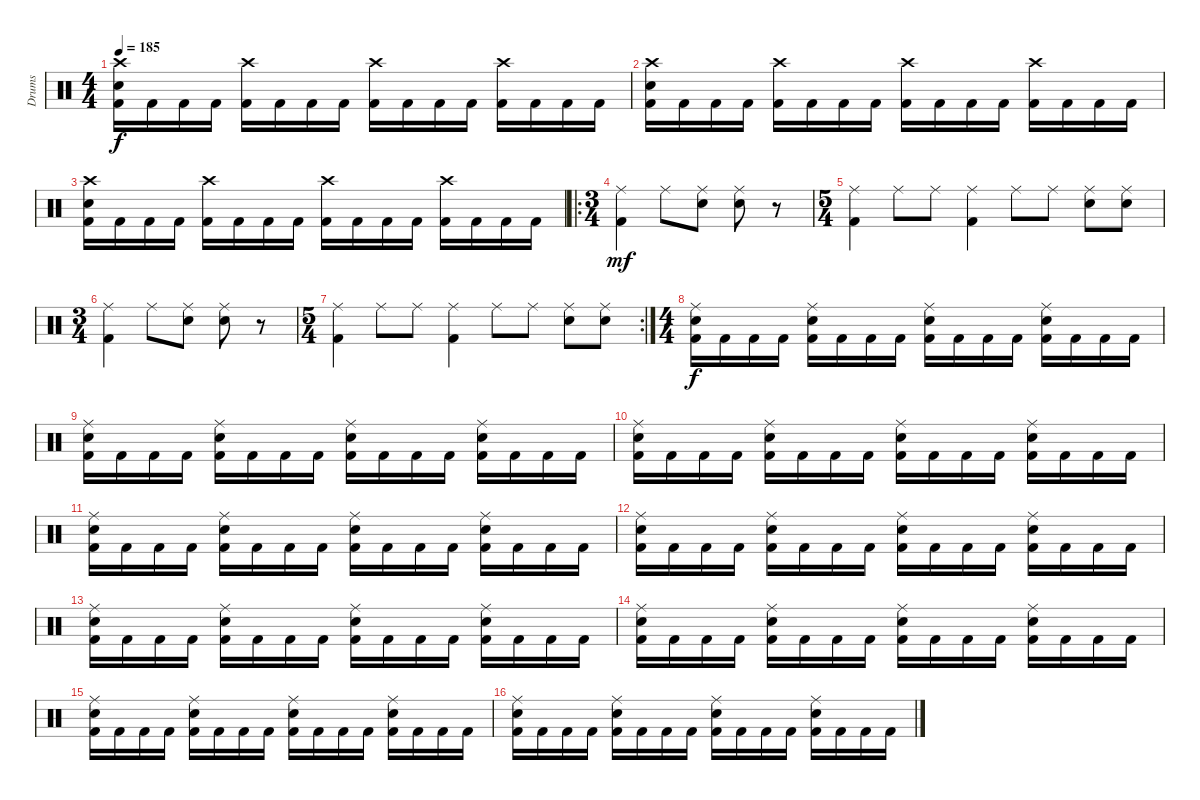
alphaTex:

\track ("Drums" "Drums") {instrument percussion}
\staff {score}
\articulation defaults
\ts (4 4)
\tempo 185
\clef neutral
\ks c
("Crash high (hit)" "Electric Snare (hit)" "Kick (hit) 2").16{dy f} "Kick (hit) 2".16 "Kick (hit) 2".16 "Kick (hit) 2".16 ("Crash high (hit)" "Kick (hit) 2").16 "Kick (hit) 2".16 "Kick (hit) 2".16 "Kick (hit) 2".16 ("Crash high (hit)" "Kick (hit) 2").16 "Kick (hit) 2".16 "Kick (hit) 2".16 "Kick (hit) 2".16 ("Crash high (hit)" "Kick (hit) 2").16 "Kick (hit) 2".16 "Kick (hit) 2".16 "Kick (hit) 2".16 |
("Crash high (hit)" "Electric Snare (hit)" "Kick (hit) 2").16 "Kick (hit) 2".16 "Kick (hit) 2".16 "Kick (hit) 2".16 ("Crash high (hit)" "Kick (hit) 2").16 "Kick (hit) 2".16 "Kick (hit) 2".16 "Kick (hit) 2".16 ("Crash high (hit)" "Kick (hit) 2").16 "Kick (hit) 2".16 "Kick (hit) 2".16 "Kick (hit) 2".16 ("Crash high (hit)" "Kick (hit) 2").16 "Kick (hit) 2".16 "Kick (hit) 2".16 "Kick (hit) 2".16 |
("Crash high (hit)" "Electric Snare (hit)" "Kick (hit) 2").16 "Kick (hit) 2".16 "Kick (hit) 2".16 "Kick (hit) 2".16 ("Crash high (hit)" "Kick (hit) 2").16 "Kick (hit) 2".16 "Kick (hit) 2".16 "Kick (hit) 2".16 ("Crash high (hit)" "Kick (hit) 2").16 "Kick (hit) 2".16 "Kick (hit) 2".16 "Kick (hit) 2".16 ("Crash high (hit)" "Kick (hit) 2").16 "Kick (hit) 2".16 "Kick (hit) 2".16 "Kick (hit) 2".16 |
\ro
\ts (3 4)
("Ride (middle)" "Kick (hit) 2").4{dy mf} "Ride (middle)".8 ("Ride (middle)" "Electric Snare (hit)").8 ("Ride (middle)" "Electric Snare (hit)").8 r.8 |
\ts (5 4)
("Ride (middle)" "Kick (hit) 2").4 "Ride (middle)".8 "Ride (middle)".8 ("Ride (middle)" "Kick (hit) 2").4 "Ride (middle)".8 "Ride (middle)".8 ("Ride (middle)" "Electric Snare (hit)").8 ("Ride (middle)" "Electric Snare (hit)").8 |
\ts (3 4)
("Ride (middle)" "Kick (hit) 2").4 "Ride (middle)".8 ("Ride (middle)" "Electric Snare (hit)").8 ("Ride (middle)" "Electric Snare (hit)").8 r.8 |
\rc 2
\ts (5 4)
("Ride (middle)" "Kick (hit) 2").4 "Ride (middle)".8 "Ride (middle)".8 ("Ride (middle)" "Kick (hit) 2").4 "Ride (middle)".8 "Ride (middle)".8 ("Ride (middle)" "Electric Snare (hit)").8 ("Ride (middle)" "Electric Snare (hit)").8 |
\ts (4 4)
("Ride (middle)" "Electric Snare (hit)" "Kick (hit) 2").16{dy f} "Kick (hit) 2".16 "Kick (hit) 2".16 "Kick (hit) 2".16 ("Ride (middle)" "Electric Snare (hit)" "Kick (hit) 2").16 "Kick (hit) 2".16 "Kick (hit) 2".16 "Kick (hit) 2".16 ("Ride (middle)" "Electric Snare (hit)" "Kick (hit) 2").16 "Kick (hit) 2".16 "Kick (hit) 2".16 "Kick (hit) 2".16 ("Ride (middle)" "Electric Snare (hit)" "Kick (hit) 2").16 "Kick (hit) 2".16 "Kick (hit) 2".16 "Kick (hit) 2".16 |
("Ride (middle)" "Electric Snare (hit)" "Kick (hit) 2").16 "Kick (hit) 2".16 "Kick (hit) 2".16 "Kick (hit) 2".16 ("Ride (middle)" "Electric Snare (hit)" "Kick (hit) 2").16 "Kick (hit) 2".16 "Kick (hit) 2".16 "Kick (hit) 2".16 ("Ride (middle)" "Electric Snare (hit)" "Kick (hit) 2").16 "Kick (hit) 2".16 "Kick (hit) 2".16 "Kick (hit) 2".16 ("Ride (middle)" "Electric Snare (hit)" "Kick (hit) 2").16 "Kick (hit) 2".16 "Kick (hit) 2".16 "Kick (hit) 2".16 |
("Ride (middle)" "Electric Snare (hit)" "Kick (hit) 2").16 "Kick (hit) 2".16 "Kick (hit) 2".16 "Kick (hit) 2".16 ("Ride (middle)" "Electric Snare (hit)" "Kick (hit) 2").16 "Kick (hit) 2".16 "Kick (hit) 2".16 "Kick (hit) 2".16 ("Ride (middle)" "Electric Snare (hit)" "Kick (hit) 2").16 "Kick (hit) 2".16 "Kick (hit) 2".16 "Kick (hit) 2".16 ("Ride (middle)" "Electric Snare (hit)" "Kick (hit) 2").16 "Kick (hit) 2".16 "Kick (hit) 2".16 "Kick (hit) 2".16 |
("Ride (middle)" "Electric Snare (hit)" "Kick (hit) 2").16 "Kick (hit) 2".16 "Kick (hit) 2".16 "Kick (hit) 2".16 ("Ride (middle)" "Electric Snare (hit)" "Kick (hit) 2").16 "Kick (hit) 2".16 "Kick (hit) 2".16 "Kick (hit) 2".16 ("Ride (middle)" "Electric Snare (hit)" "Kick (hit) 2").16 "Kick (hit) 2".16 "Kick (hit) 2".16 "Kick (hit) 2".16 ("Ride (middle)" "Electric Snare (hit)" "Kick (hit) 2").16 "Kick (hit) 2".16 "Kick (hit) 2".16 "Kick (hit) 2".16 |
("Ride (middle)" "Electric Snare (hit)" "Kick (hit) 2").16 "Kick (hit) 2".16 "Kick (hit) 2".16 "Kick (hit) 2".16 ("Ride (middle)" "Electric Snare (hit)" "Kick (hit) 2").16 "Kick (hit) 2".16 "Kick (hit) 2".16 "Kick (hit) 2".16 ("Ride (middle)" "Electric Snare (hit)" "Kick (hit) 2").16 "Kick (hit) 2".16 "Kick (hit) 2".16 "Kick (hit) 2".16 ("Ride (middle)" "Electric Snare (hit)" "Kick (hit) 2").16 "Kick (hit) 2".16 "Kick (hit) 2".16 "Kick (hit) 2".16 |
("Ride (middle)" "Electric Snare (hit)" "Kick (hit) 2").16 "Kick (hit) 2".16 "Kick (hit) 2".16 "Kick (hit) 2".16 ("Ride (middle)" "Electric Snare (hit)" "Kick (hit) 2").16 "Kick (hit) 2".16 "Kick (hit) 2".16 "Kick (hit) 2".16 ("Ride (middle)" "Electric Snare (hit)" "Kick (hit) 2").16 "Kick (hit) 2".16 "Kick (hit) 2".16 "Kick (hit) 2".16 ("Ride (middle)" "Electric Snare (hit)" "Kick (hit) 2").16 "Kick (hit) 2".16 "Kick (hit) 2".16 "Kick (hit) 2".16 |
("Ride (middle)" "Electric Snare (hit)" "Kick (hit) 2").16 "Kick (hit) 2".16 "Kick (hit) 2".16 "Kick (hit) 2".16 ("Ride (middle)" "Electric Snare (hit)" "Kick (hit) 2").16 "Kick (hit) 2".16 "Kick (hit) 2".16 "Kick (hit) 2".16 ("Ride (middle)" "Electric Snare (hit)" "Kick (hit) 2").16 "Kick (hit) 2".16 "Kick (hit) 2".16 "Kick (hit) 2".16 ("Ride (middle)" "Electric Snare (hit)" "Kick (hit) 2").16 "Kick (hit) 2".16 "Kick (hit) 2".16 "Kick (hit) 2".16 |
("Ride (middle)" "Electric Snare (hit)" "Kick (hit) 2").16 "Kick (hit) 2".16 "Kick (hit) 2".16 "Kick (hit) 2".16 ("Ride (middle)" "Electric Snare (hit)" "Kick (hit) 2").16 "Kick (hit) 2".16 "Kick (hit) 2".16 "Kick (hit) 2".16 ("Ride (middle)" "Electric Snare (hit)" "Kick (hit) 2").16 "Kick (hit) 2".16 "Kick (hit) 2".16 "Kick (hit) 2".16 ("Ride (middle)" "Electric Snare (hit)" "Kick (hit) 2").16 "Kick (hit) 2".16 "Kick (hit) 2".16 "Kick (hit) 2".16 |
("Ride (middle)" "Electric Snare (hit)" "Kick (hit) 2").16 "Kick (hit) 2".16 "Kick (hit) 2".16 "Kick (hit) 2".16 ("Ride (middle)" "Electric Snare (hit)" "Kick (hit) 2").16 "Kick (hit) 2".16 "Kick (hit) 2".16 "Kick (hit) 2".16 ("Ride (middle)" "Electric Snare (hit)" "Kick (hit) 2").16 "Kick (hit) 2".16 "Kick (hit) 2".16 "Kick (hit) 2".16 ("Ride (middle)" "Electric Snare (hit)" "Kick (hit) 2").16 "Kick (hit) 2".16 "Kick (hit) 2".16 "Kick (hit) 2".16
